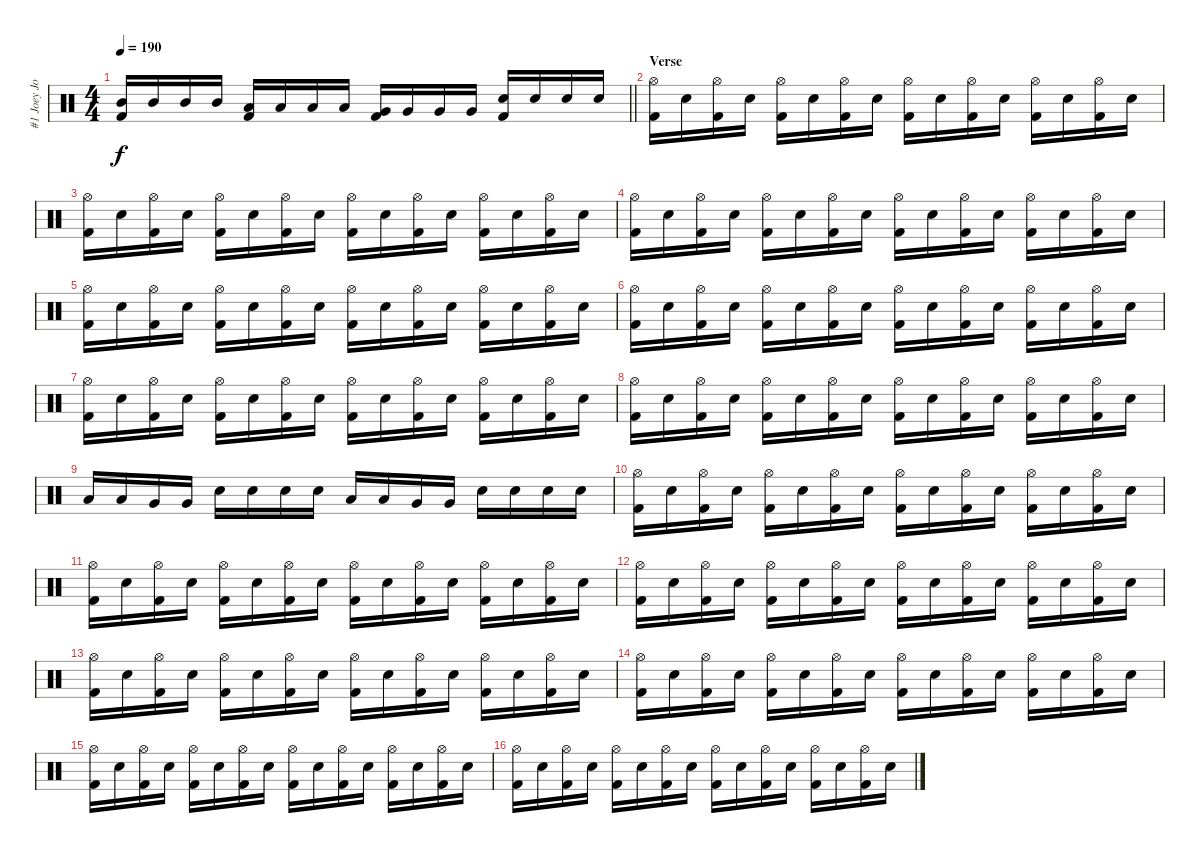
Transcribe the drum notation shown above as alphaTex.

\track ("#1 Joey Jordison" "#1 Joey Jo") {instrument percussion}
\staff {score}
\articulation defaults
\ts (4 4)
\tempo 190
\clef neutral
\barLineRight lightlight
\ks c
("Mid Tom (hit)" "Kick (hit) 2").16{dy f} "Mid Tom (hit)".16 "Mid Tom (hit)".16 "Mid Tom (hit)".16 ("Low Tom (hit)" "Kick (hit) 2").16 "Low Tom (hit)".16 "Low Tom (hit)".16 "Low Tom (hit)".16 ("Very Low Tom (hit)" "Kick (hit) 2").16 "Very Low Tom (hit)".16 "Very Low Tom (hit)".16 "Very Low Tom (hit)".16 ("Electric Snare (hit)" "Kick (hit) 2").16 "Electric Snare (hit)".16 "Electric Snare (hit)".16 "Electric Snare (hit)".16 |
\section ("" "Verse")
("Hi-Hat (open)" "Kick (hit) 2").16 "Electric Snare (hit)".16 ("Hi-Hat (open)" "Kick (hit) 2").16 "Electric Snare (hit)".16 ("Hi-Hat (open)" "Kick (hit) 2").16 "Electric Snare (hit)".16 ("Hi-Hat (open)" "Kick (hit) 2").16 "Electric Snare (hit)".16 ("Hi-Hat (open)" "Kick (hit) 2").16 "Electric Snare (hit)".16 ("Hi-Hat (open)" "Kick (hit) 2").16 "Electric Snare (hit)".16 ("Hi-Hat (open)" "Kick (hit) 2").16 "Electric Snare (hit)".16 ("Hi-Hat (open)" "Kick (hit) 2").16 "Electric Snare (hit)".16 |
("Hi-Hat (open)" "Kick (hit) 2").16 "Electric Snare (hit)".16 ("Hi-Hat (open)" "Kick (hit) 2").16 "Electric Snare (hit)".16 ("Hi-Hat (open)" "Kick (hit) 2").16 "Electric Snare (hit)".16 ("Hi-Hat (open)" "Kick (hit) 2").16 "Electric Snare (hit)".16 ("Hi-Hat (open)" "Kick (hit) 2").16 "Electric Snare (hit)".16 ("Hi-Hat (open)" "Kick (hit) 2").16 "Electric Snare (hit)".16 ("Hi-Hat (open)" "Kick (hit) 2").16 "Electric Snare (hit)".16 ("Hi-Hat (open)" "Kick (hit) 2").16 "Electric Snare (hit)".16 |
("Hi-Hat (open)" "Kick (hit) 2").16 "Electric Snare (hit)".16 ("Hi-Hat (open)" "Kick (hit) 2").16 "Electric Snare (hit)".16 ("Hi-Hat (open)" "Kick (hit) 2").16 "Electric Snare (hit)".16 ("Hi-Hat (open)" "Kick (hit) 2").16 "Electric Snare (hit)".16 ("Hi-Hat (open)" "Kick (hit) 2").16 "Electric Snare (hit)".16 ("Hi-Hat (open)" "Kick (hit) 2").16 "Electric Snare (hit)".16 ("Hi-Hat (open)" "Kick (hit) 2").16 "Electric Snare (hit)".16 ("Hi-Hat (open)" "Kick (hit) 2").16 "Electric Snare (hit)".16 |
("Hi-Hat (open)" "Kick (hit) 2").16 "Electric Snare (hit)".16 ("Hi-Hat (open)" "Kick (hit) 2").16 "Electric Snare (hit)".16 ("Hi-Hat (open)" "Kick (hit) 2").16 "Electric Snare (hit)".16 ("Hi-Hat (open)" "Kick (hit) 2").16 "Electric Snare (hit)".16 ("Hi-Hat (open)" "Kick (hit) 2").16 "Electric Snare (hit)".16 ("Hi-Hat (open)" "Kick (hit) 2").16 "Electric Snare (hit)".16 ("Hi-Hat (open)" "Kick (hit) 2").16 "Electric Snare (hit)".16 ("Hi-Hat (open)" "Kick (hit) 2").16 "Electric Snare (hit)".16 |
("Hi-Hat (open)" "Kick (hit) 2").16 "Electric Snare (hit)".16 ("Hi-Hat (open)" "Kick (hit) 2").16 "Electric Snare (hit)".16 ("Hi-Hat (open)" "Kick (hit) 2").16 "Electric Snare (hit)".16 ("Hi-Hat (open)" "Kick (hit) 2").16 "Electric Snare (hit)".16 ("Hi-Hat (open)" "Kick (hit) 2").16 "Electric Snare (hit)".16 ("Hi-Hat (open)" "Kick (hit) 2").16 "Electric Snare (hit)".16 ("Hi-Hat (open)" "Kick (hit) 2").16 "Electric Snare (hit)".16 ("Hi-Hat (open)" "Kick (hit) 2").16 "Electric Snare (hit)".16 |
("Hi-Hat (open)" "Kick (hit) 2").16 "Electric Snare (hit)".16 ("Hi-Hat (open)" "Kick (hit) 2").16 "Electric Snare (hit)".16 ("Hi-Hat (open)" "Kick (hit) 2").16 "Electric Snare (hit)".16 ("Hi-Hat (open)" "Kick (hit) 2").16 "Electric Snare (hit)".16 ("Hi-Hat (open)" "Kick (hit) 2").16 "Electric Snare (hit)".16 ("Hi-Hat (open)" "Kick (hit) 2").16 "Electric Snare (hit)".16 ("Hi-Hat (open)" "Kick (hit) 2").16 "Electric Snare (hit)".16 ("Hi-Hat (open)" "Kick (hit) 2").16 "Electric Snare (hit)".16 |
("Hi-Hat (open)" "Kick (hit) 2").16 "Electric Snare (hit)".16 ("Hi-Hat (open)" "Kick (hit) 2").16 "Electric Snare (hit)".16 ("Hi-Hat (open)" "Kick (hit) 2").16 "Electric Snare (hit)".16 ("Hi-Hat (open)" "Kick (hit) 2").16 "Electric Snare (hit)".16 ("Hi-Hat (open)" "Kick (hit) 2").16 "Electric Snare (hit)".16 ("Hi-Hat (open)" "Kick (hit) 2").16 "Electric Snare (hit)".16 ("Hi-Hat (open)" "Kick (hit) 2").16 "Electric Snare (hit)".16 ("Hi-Hat (open)" "Kick (hit) 2").16 "Electric Snare (hit)".16 |
"Low Tom (hit)".16 "Low Tom (hit)".16 "Very Low Tom (hit)".16 "Very Low Tom (hit)".16 "Electric Snare (hit)".16 "Electric Snare (hit)".16 "Electric Snare (hit)".16 "Electric Snare (hit)".16 "Low Tom (hit)".16 "Low Tom (hit)".16 "Very Low Tom (hit)".16 "Very Low Tom (hit)".16 "Electric Snare (hit)".16 "Electric Snare (hit)".16 "Electric Snare (hit)".16 "Electric Snare (hit)".16 |
("Hi-Hat (open)" "Kick (hit) 2").16 "Electric Snare (hit)".16 ("Hi-Hat (open)" "Kick (hit) 2").16 "Electric Snare (hit)".16 ("Hi-Hat (open)" "Kick (hit) 2").16 "Electric Snare (hit)".16 ("Hi-Hat (open)" "Kick (hit) 2").16 "Electric Snare (hit)".16 ("Hi-Hat (open)" "Kick (hit) 2").16 "Electric Snare (hit)".16 ("Hi-Hat (open)" "Kick (hit) 2").16 "Electric Snare (hit)".16 ("Hi-Hat (open)" "Kick (hit) 2").16 "Electric Snare (hit)".16 ("Hi-Hat (open)" "Kick (hit) 2").16 "Electric Snare (hit)".16 |
("Hi-Hat (open)" "Kick (hit) 2").16 "Electric Snare (hit)".16 ("Hi-Hat (open)" "Kick (hit) 2").16 "Electric Snare (hit)".16 ("Hi-Hat (open)" "Kick (hit) 2").16 "Electric Snare (hit)".16 ("Hi-Hat (open)" "Kick (hit) 2").16 "Electric Snare (hit)".16 ("Hi-Hat (open)" "Kick (hit) 2").16 "Electric Snare (hit)".16 ("Hi-Hat (open)" "Kick (hit) 2").16 "Electric Snare (hit)".16 ("Hi-Hat (open)" "Kick (hit) 2").16 "Electric Snare (hit)".16 ("Hi-Hat (open)" "Kick (hit) 2").16 "Electric Snare (hit)".16 |
("Hi-Hat (open)" "Kick (hit) 2").16 "Electric Snare (hit)".16 ("Hi-Hat (open)" "Kick (hit) 2").16 "Electric Snare (hit)".16 ("Hi-Hat (open)" "Kick (hit) 2").16 "Electric Snare (hit)".16 ("Hi-Hat (open)" "Kick (hit) 2").16 "Electric Snare (hit)".16 ("Hi-Hat (open)" "Kick (hit) 2").16 "Electric Snare (hit)".16 ("Hi-Hat (open)" "Kick (hit) 2").16 "Electric Snare (hit)".16 ("Hi-Hat (open)" "Kick (hit) 2").16 "Electric Snare (hit)".16 ("Hi-Hat (open)" "Kick (hit) 2").16 "Electric Snare (hit)".16 |
("Hi-Hat (open)" "Kick (hit) 2").16 "Electric Snare (hit)".16 ("Hi-Hat (open)" "Kick (hit) 2").16 "Electric Snare (hit)".16 ("Hi-Hat (open)" "Kick (hit) 2").16 "Electric Snare (hit)".16 ("Hi-Hat (open)" "Kick (hit) 2").16 "Electric Snare (hit)".16 ("Hi-Hat (open)" "Kick (hit) 2").16 "Electric Snare (hit)".16 ("Hi-Hat (open)" "Kick (hit) 2").16 "Electric Snare (hit)".16 ("Hi-Hat (open)" "Kick (hit) 2").16 "Electric Snare (hit)".16 ("Hi-Hat (open)" "Kick (hit) 2").16 "Electric Snare (hit)".16 |
("Hi-Hat (open)" "Kick (hit) 2").16 "Electric Snare (hit)".16 ("Hi-Hat (open)" "Kick (hit) 2").16 "Electric Snare (hit)".16 ("Hi-Hat (open)" "Kick (hit) 2").16 "Electric Snare (hit)".16 ("Hi-Hat (open)" "Kick (hit) 2").16 "Electric Snare (hit)".16 ("Hi-Hat (open)" "Kick (hit) 2").16 "Electric Snare (hit)".16 ("Hi-Hat (open)" "Kick (hit) 2").16 "Electric Snare (hit)".16 ("Hi-Hat (open)" "Kick (hit) 2").16 "Electric Snare (hit)".16 ("Hi-Hat (open)" "Kick (hit) 2").16 "Electric Snare (hit)".16 |
("Hi-Hat (open)" "Kick (hit) 2").16 "Electric Snare (hit)".16 ("Hi-Hat (open)" "Kick (hit) 2").16 "Electric Snare (hit)".16 ("Hi-Hat (open)" "Kick (hit) 2").16 "Electric Snare (hit)".16 ("Hi-Hat (open)" "Kick (hit) 2").16 "Electric Snare (hit)".16 ("Hi-Hat (open)" "Kick (hit) 2").16 "Electric Snare (hit)".16 ("Hi-Hat (open)" "Kick (hit) 2").16 "Electric Snare (hit)".16 ("Hi-Hat (open)" "Kick (hit) 2").16 "Electric Snare (hit)".16 ("Hi-Hat (open)" "Kick (hit) 2").16 "Electric Snare (hit)".16 |
("Hi-Hat (open)" "Kick (hit) 2").16 "Electric Snare (hit)".16 ("Hi-Hat (open)" "Kick (hit) 2").16 "Electric Snare (hit)".16 ("Hi-Hat (open)" "Kick (hit) 2").16 "Electric Snare (hit)".16 ("Hi-Hat (open)" "Kick (hit) 2").16 "Electric Snare (hit)".16 ("Hi-Hat (open)" "Kick (hit) 2").16 "Electric Snare (hit)".16 ("Hi-Hat (open)" "Kick (hit) 2").16 "Electric Snare (hit)".16 ("Hi-Hat (open)" "Kick (hit) 2").16 "Electric Snare (hit)".16 ("Hi-Hat (open)" "Kick (hit) 2").16 "Electric Snare (hit)".16
